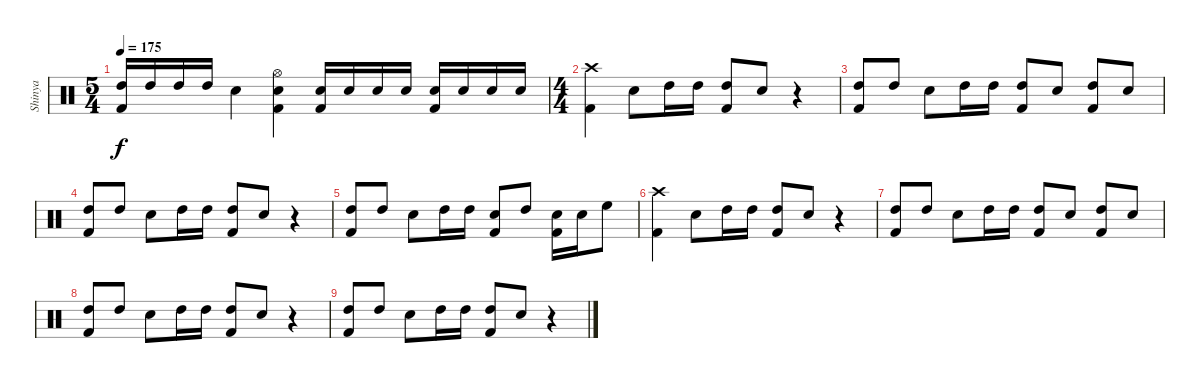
\track ("Shinya" "Shinya") {instrument percussion}
\staff {score}
\articulation defaults
\ts (5 4)
\tempo 175
\clef neutral
\ks c
("Kick (hit) 2" "High Tom (hit)").16{dy f} "High Tom (hit)".16 "High Tom (hit)".16 "High Tom (hit)".16 "Snare (hit) 2".4 ("Hi-Hat (open)" "Snare (hit) 2" "Kick (hit) 2").4 ("Kick (hit) 2" "Snare (hit) 2").16 "Snare (hit) 2".16 "Snare (hit) 2".16 "Snare (hit) 2".16 ("Kick (hit) 2" "Snare (hit) 2").16 "Snare (hit) 2".16 "Snare (hit) 2".16 "Snare (hit) 2".16 |
\ts (4 4)
("Crash high (hit)" "Kick (hit) 2").4 "Snare (hit) 2".8 "High Tom (hit)".16 "High Tom (hit)".16 ("Kick (hit) 2" "High Tom (hit)").8 "Snare (hit) 2".8 r.4 |
("Kick (hit) 2" "High Tom (hit)").8 "High Tom (hit)".8 "Snare (hit) 2".8 "High Tom (hit)".16 "High Tom (hit)".16 ("Kick (hit) 2" "High Tom (hit)").8 "Snare (hit) 2".8 ("Kick (hit) 2" "High Tom (hit)").8 "Snare (hit) 2".8 |
("Kick (hit) 2" "High Tom (hit)").8 "High Tom (hit)".8 "Snare (hit) 2".8 "High Tom (hit)".16 "High Tom (hit)".16 ("Kick (hit) 2" "High Tom (hit)").8 "Snare (hit) 2".8 r.4 |
("Kick (hit) 2" "High Tom (hit)").8 "High Tom (hit)".8 "Snare (hit) 2".8 "High Tom (hit)".16 "High Tom (hit)".16 ("Snare (hit) 2" "Kick (hit) 2").8 "High Tom (hit)".8 ("Snare (hit) 2" "Kick (hit) 2").16 "Snare (hit) 2".16 "High Floor Tom (hit)".8 |
("Crash high (hit)" "Kick (hit) 2").4 "Snare (hit) 2".8 "High Tom (hit)".16 "High Tom (hit)".16 ("Kick (hit) 2" "High Tom (hit)").8 "Snare (hit) 2".8 r.4 |
("Kick (hit) 2" "High Tom (hit)").8 "High Tom (hit)".8 "Snare (hit) 2".8 "High Tom (hit)".16 "High Tom (hit)".16 ("Kick (hit) 2" "High Tom (hit)").8 "Snare (hit) 2".8 ("Kick (hit) 2" "High Tom (hit)").8 "Snare (hit) 2".8 |
("Kick (hit) 2" "High Tom (hit)").8 "High Tom (hit)".8 "Snare (hit) 2".8 "High Tom (hit)".16 "High Tom (hit)".16 ("Kick (hit) 2" "High Tom (hit)").8 "Snare (hit) 2".8 r.4 |
("Kick (hit) 2" "High Tom (hit)").8 "High Tom (hit)".8 "Snare (hit) 2".8 "High Tom (hit)".16 "High Tom (hit)".16 ("Kick (hit) 2" "High Tom (hit)").8 "Snare (hit) 2".8 r.4
